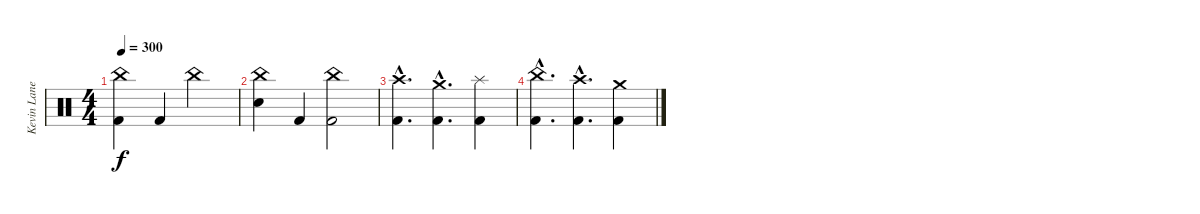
\track ("Kevin Lane (Drums)" "Kevin Lane") {instrument percussion}
\staff {score}
\articulation defaults
\ts (4 4)
\tempo 300
\clef neutral
\ks c
("China (hit)" "Kick (hit) 2").4{dy f} "Kick (hit) 2".4 "China (hit)".2 |
("China (hit)" "Snare (hit) 2").4 "Kick (hit) 2".4 ("China (hit)" "Kick (hit) 2").2 |
("Crash high (hit)"{hac} "Kick (hit) 2"{hac}).4{d} ("Crash medium (hit)"{hac} "Kick (hit) 2"{hac}).4{d} ("Splash (hit)" "Kick (hit) 2").4 |
("China (hit)"{hac} "Kick (hit) 2"{hac}).4{d} ("Crash high (hit)"{hac} "Kick (hit) 2"{hac}).4{d} ("Crash medium (hit)" "Kick (hit) 2").4
